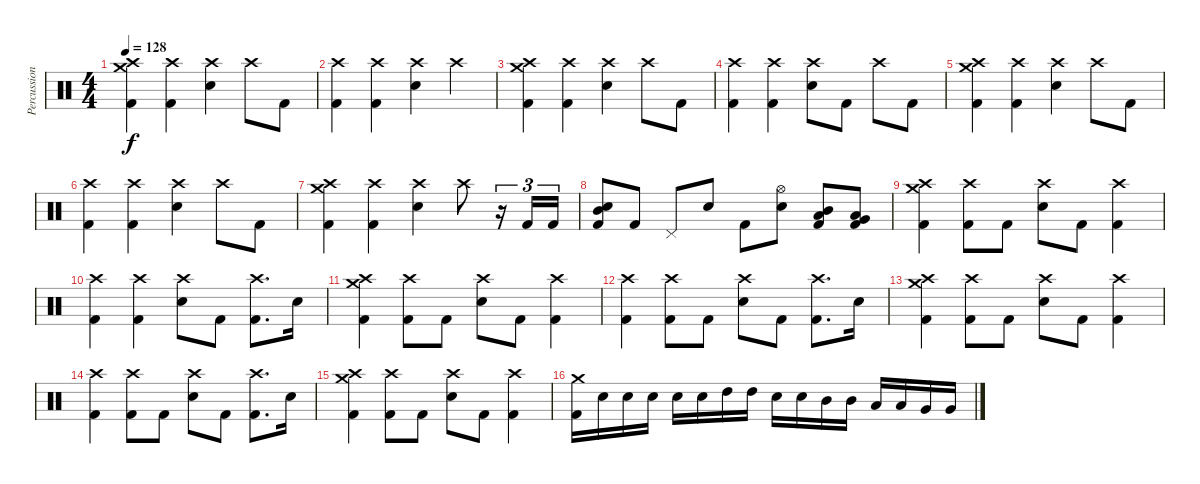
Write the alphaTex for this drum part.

\track ("Percussion" "Percussion") {instrument percussion}
\staff {score}
\articulation defaults
\ts (4 4)
\tempo 128
\clef neutral
\ks c
("Crash high (hit)" "Crash medium (hit)" "Kick (hit) 2").4{dy f} ("Crash high (hit)" "Kick (hit) 2").4 ("Crash high (hit)" "Electric Snare (hit)").4 "Crash high (hit)".8 "Kick (hit) 2".8 |
("Crash high (hit)" "Kick (hit) 2").4 ("Crash high (hit)" "Kick (hit) 2").4 ("Crash high (hit)" "Electric Snare (hit)").4 "Crash high (hit)".4 |
("Crash high (hit)" "Crash medium (hit)" "Kick (hit) 2").4 ("Crash high (hit)" "Kick (hit) 2").4 ("Crash high (hit)" "Electric Snare (hit)").4 "Crash high (hit)".8 "Kick (hit) 2".8 |
("Crash high (hit)" "Kick (hit) 2").4 ("Crash high (hit)" "Kick (hit) 2").4 ("Crash high (hit)" "Electric Snare (hit)").8 "Kick (hit) 2".8 "Crash high (hit)".8 "Kick (hit) 2".8 |
("Crash high (hit)" "Crash medium (hit)" "Kick (hit) 2").4 ("Crash high (hit)" "Kick (hit) 2").4 ("Crash high (hit)" "Electric Snare (hit)").4 "Crash high (hit)".8 "Kick (hit) 2".8 |
("Crash high (hit)" "Kick (hit) 2").4 ("Crash high (hit)" "Kick (hit) 2").4 ("Crash high (hit)" "Electric Snare (hit)").4 "Crash high (hit)".8 "Kick (hit) 2".8 |
("Crash high (hit)" "Crash medium (hit)" "Kick (hit) 2").4 ("Crash high (hit)" "Kick (hit) 2").4 ("Crash high (hit)" "Electric Snare (hit)").4 "Crash high (hit)".8 r.16{tu (3 2)} "Kick (hit) 2".16{tu (3 2)} "Kick (hit) 2".16{tu (3 2)} |
("Electric Snare (hit)" "Mid Tom (hit)" "Kick (hit) 2").8 "Kick (hit) 2".8 "Pedal Hi-Hat (hit)".8 "Electric Snare (hit)".8 "Kick (hit) 2".8 ("Hi-Hat (open)" "Electric Snare (hit)").8 ("Mid Tom (hit)" "Low Tom (hit)" "Kick (hit) 2").8 ("Very Low Tom (hit)" "Low Floor Tom (hit)" "Kick (hit) 2").8 |
("Crash high (hit)" "Crash medium (hit)" "Kick (hit) 2").4 ("Crash high (hit)" "Kick (hit) 2").8 "Kick (hit) 2".8 ("Crash high (hit)" "Electric Snare (hit)").8 "Kick (hit) 2".8 ("Crash high (hit)" "Kick (hit) 2").4 |
("Crash high (hit)" "Kick (hit) 2").4 ("Crash high (hit)" "Kick (hit) 2").4 ("Crash high (hit)" "Electric Snare (hit)").8 "Kick (hit) 2".8 ("Crash high (hit)" "Kick (hit) 2").8{d} "Electric Snare (hit)".16 |
("Crash high (hit)" "Crash medium (hit)" "Kick (hit) 2").4 ("Crash high (hit)" "Kick (hit) 2").8 "Kick (hit) 2".8 ("Crash high (hit)" "Electric Snare (hit)").8 "Kick (hit) 2".8 ("Crash high (hit)" "Kick (hit) 2").4 |
("Crash high (hit)" "Kick (hit) 2").4 ("Crash high (hit)" "Kick (hit) 2").8 "Kick (hit) 2".8 ("Crash high (hit)" "Electric Snare (hit)").8 "Kick (hit) 2".8 ("Crash high (hit)" "Kick (hit) 2").8{d} "Electric Snare (hit)".16 |
("Crash high (hit)" "Crash medium (hit)" "Kick (hit) 2").4 ("Crash high (hit)" "Kick (hit) 2").8 "Kick (hit) 2".8 ("Crash high (hit)" "Electric Snare (hit)").8 "Kick (hit) 2".8 ("Crash high (hit)" "Kick (hit) 2").4 |
("Crash high (hit)" "Kick (hit) 2").4 ("Crash high (hit)" "Kick (hit) 2").8 "Kick (hit) 2".8 ("Crash high (hit)" "Electric Snare (hit)").8 "Kick (hit) 2".8 ("Crash high (hit)" "Kick (hit) 2").8{d} "Electric Snare (hit)".16 |
("Crash high (hit)" "Crash medium (hit)" "Kick (hit) 2").4 ("Crash high (hit)" "Kick (hit) 2").8 "Kick (hit) 2".8 ("Crash high (hit)" "Electric Snare (hit)").8 "Kick (hit) 2".8 ("Crash high (hit)" "Kick (hit) 2").4 |
("Crash medium (hit)" "Kick (hit) 2").16 "Electric Snare (hit)".16 "Electric Snare (hit)".16 "Electric Snare (hit)".16 "Electric Snare (hit)".16 "Electric Snare (hit)".16 "High Tom (hit)".16 "High Tom (hit)".16 "Electric Snare (hit)".16 "Electric Snare (hit)".16 "Mid Tom (hit)".16 "Mid Tom (hit)".16 "Low Tom (hit)".16 "Low Tom (hit)".16 "Very Low Tom (hit)".16 "Very Low Tom (hit)".16
